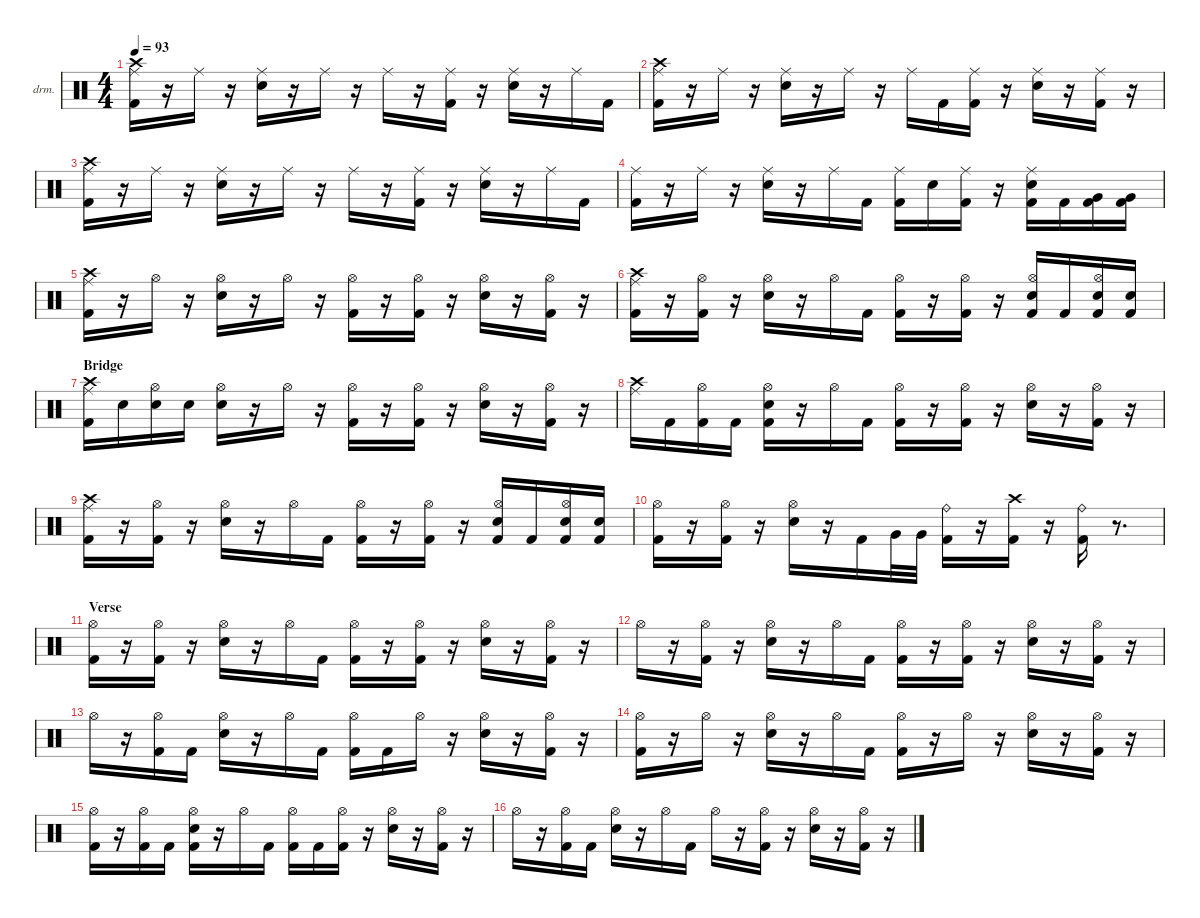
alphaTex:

\defaultSystemsLayout 2
\hideDynamics
\bracketExtendMode nobrackets
\firstSystemTrackNameOrientation horizontal
\otherSystemsTrackNameOrientation horizontal
\track ("Drumkit" "drm.") {instrument percussion}
\staff {score}
\articulation defaults
\ts (4 4)
\scale
1.0532
\tempo 93
\accidentals auto
\clef neutral
\ottava regular
\simile none
\ks c
("Kick (hit) 2" "Crash high (hit)"{acc #} "Ride (middle)"{acc #}).16{dy mf beam Down} r.16{beam Down} "Ride (middle)"{acc #}.16{beam Down} r.16{beam Down} ("Snare (hit) 2" "Ride (middle)"{acc #}).16{beam Down} r.16{beam Down} "Ride (middle)"{acc #}.16{beam Down} r.16{beam Down} "Ride (middle)"{acc #}.16{beam Down} r.16{beam Down} ("Kick (hit) 2" "Ride (middle)"{acc #}).16{beam Down} r.16{beam Down} ("Snare (hit) 2" "Ride (middle)"{acc #}).16{beam Down} r.16{beam Down} "Ride (middle)"{acc #}.16{beam Down} "Kick (hit) 2".16{beam Down} |
\scale
0.946802 ("Kick (hit) 2" "Crash high (hit)"{acc #} "Ride (middle)"{acc #}).16{beam Down} r.16{beam Down} "Ride (middle)"{acc #}.16{beam Down} r.16{beam Down} ("Snare (hit) 2" "Ride (middle)"{acc #}).16{beam Down} r.16{beam Down} "Ride (middle)"{acc #}.16{beam Down} r.16{beam Down} "Ride (middle)"{acc #}.16{beam Down} "Kick (hit) 2".16{beam Down} ("Kick (hit) 2" "Ride (middle)"{acc #}).16{beam Down} r.16{beam Down} ("Snare (hit) 2" "Ride (middle)"{acc #}).16{beam Down} r.16{beam Down} ("Kick (hit) 2" "Ride (middle)"{acc #}).16{beam Down} r.16{beam Down} |
\scale
1.03306 ("Crash high (hit)"{acc #} "Kick (hit) 2" "Ride (middle)"{acc #}).16{beam Down} r.16{beam Down} "Ride (middle)"{acc #}.16{beam Down} r.16{beam Down} ("Snare (hit) 2" "Ride (middle)"{acc #}).16{beam Down} r.16{beam Down} "Ride (middle)"{acc #}.16{beam Down} r.16{beam Down} "Ride (middle)"{acc #}.16{beam Down} r.16{beam Down} ("Kick (hit) 2" "Ride (middle)"{acc #}).16{beam Down} r.16{beam Down} ("Snare (hit) 2" "Ride (middle)"{acc #}).16{beam Down} r.16{beam Down} "Ride (middle)"{acc #}.16{beam Down} "Kick (hit) 2".16{beam Down} |
\scale
0.966937 ("Kick (hit) 2" "Ride (middle)"{acc #}).16{beam Down} r.16{beam Down} "Ride (middle)"{acc #}.16{beam Down} r.16{beam Down} ("Snare (hit) 2" "Ride (middle)"{acc #}).16{beam Down} r.16{beam Down} "Ride (middle)"{acc #}.16{beam Down} "Kick (hit) 2".16{beam Down} ("Kick (hit) 2" "Ride (middle)"{acc #}).16{beam Down} "Snare (hit) 2".16{beam Down} ("Kick (hit) 2" "Ride (middle)"{acc #}).16{beam Down} r.16{beam Down} ("Snare (hit) 2" "Kick (hit) 2" "Ride (middle)"{acc #}).16{beam Down} "Kick (hit) 2".16{beam Down} ("Kick (hit) 2" "Very Low Tom (hit)").16{beam Down} ("Kick (hit) 2" "Very Low Tom (hit)").16{beam Down} |
\scale
1.03043 ("Crash high (hit)"{acc #} "Kick (hit) 2" "Ride (middle)"{acc #}).16{beam Down} r.16{beam Down} "Hi-Hat (open)"{acc #}.16{beam Down} r.16{beam Down} ("Snare (hit) 2" "Hi-Hat (open)"{acc #}).16{beam Down} r.16{beam Down} "Hi-Hat (open)"{acc #}.16{beam Down} r.16{beam Down} ("Kick (hit) 2" "Hi-Hat (open)"{acc #}).16{beam Down} r.16{beam Down} ("Kick (hit) 2" "Hi-Hat (open)"{acc #}).16{beam Down} r.16{beam Down} ("Snare (hit) 2" "Hi-Hat (open)"{acc #}).16{beam Down} r.16{beam Down} ("Kick (hit) 2" "Hi-Hat (open)"{acc #}).16{beam Down} r.16{beam Down} |
\scale
0.969568 ("Crash high (hit)"{acc #} "Kick (hit) 2" "Ride (middle)"{acc #}).16{beam Down} r.16{beam Down} ("Kick (hit) 2" "Hi-Hat (open)"{acc #}).16{beam Down} r.16{beam Down} ("Snare (hit) 2" "Hi-Hat (open)"{acc #}).16{beam Down} r.16{beam Down} "Hi-Hat (open)"{acc #}.16{beam Down} "Kick (hit) 2".16{beam Down} ("Kick (hit) 2" "Hi-Hat (open)"{acc #}).16{beam Down} r.16{beam Down} ("Kick (hit) 2" "Hi-Hat (open)"{acc #}).16{beam Down} r.16{beam Down} ("Kick (hit) 2" "Snare (hit) 2" "Hi-Hat (open)"{acc #}).16{beam Up} "Kick (hit) 2".16{beam Up} ("Kick (hit) 2" "Snare (hit) 2" "Hi-Hat (open)"{acc #}).16{beam Up} ("Kick (hit) 2" "Snare (hit) 2").16{beam Up} |
\section ("" "Bridge")
\scale
1.03043 ("Kick (hit) 2" "Crash high (hit)"{acc #} "Ride (middle)"{acc #}).16{beam Down} "Snare (hit) 2".16{beam Down} ("Snare (hit) 2" "Hi-Hat (open)"{acc #}).16{beam Down} "Snare (hit) 2".16{beam Down} ("Snare (hit) 2" "Hi-Hat (open)"{acc #}).16{beam Down} r.16{beam Down} "Hi-Hat (open)"{acc #}.16{beam Down} r.16{beam Down} ("Kick (hit) 2" "Hi-Hat (open)"{acc #}).16{beam Down} r.16{beam Down} ("Kick (hit) 2" "Hi-Hat (open)"{acc #}).16{beam Down} r.16{beam Down} ("Snare (hit) 2" "Hi-Hat (open)"{acc #}).16{beam Down} r.16{beam Down} ("Kick (hit) 2" "Hi-Hat (open)"{acc #}).16{beam Down} r.16{beam Down} |
\scale
0.969568 ("Crash high (hit)"{acc #} "Ride (middle)"{acc #}).16{beam Down} "Kick (hit) 2".16{beam Down} ("Kick (hit) 2" "Hi-Hat (open)"{acc #}).16{beam Down} "Kick (hit) 2".16{beam Down} ("Kick (hit) 2" "Snare (hit) 2" "Hi-Hat (open)"{acc #}).16{beam Down} r.16{beam Down} "Hi-Hat (open)"{acc #}.16{beam Down} "Kick (hit) 2".16{beam Down} ("Kick (hit) 2" "Hi-Hat (open)"{acc #}).16{beam Down} r.16{beam Down} ("Kick (hit) 2" "Hi-Hat (open)"{acc #}).16{beam Down} r.16{beam Down} ("Snare (hit) 2" "Hi-Hat (open)"{acc #}).16{beam Down} r.16{beam Down} ("Kick (hit) 2" "Hi-Hat (open)"{acc #}).16{beam Down} r.16{beam Down} |
\scale
1.02601 ("Kick (hit) 2" "Crash high (hit)"{acc #} "Ride (middle)"{acc #}).16{beam Down} r.16{beam Down} ("Kick (hit) 2" "Hi-Hat (open)"{acc #}).16{beam Down} r.16{beam Down} ("Snare (hit) 2" "Hi-Hat (open)"{acc #}).16{beam Down} r.16{beam Down} "Hi-Hat (open)"{acc #}.16{beam Down} "Kick (hit) 2".16{beam Down} ("Kick (hit) 2" "Hi-Hat (open)"{acc #}).16{beam Down} r.16{beam Down} ("Kick (hit) 2" "Hi-Hat (open)"{acc #}).16{beam Down} r.16{beam Down} ("Snare (hit) 2" "Kick (hit) 2" "Hi-Hat (open)"{acc #}).16{beam Up} "Kick (hit) 2".16{beam Up} ("Snare (hit) 2" "Kick (hit) 2" "Hi-Hat (open)"{acc #}).16{beam Up} ("Kick (hit) 2" "Snare (hit) 2").16{beam Up} |
\scale
0.973989 ("Kick (hit) 2" "Hi-Hat (open)"{acc #}).16{beam Down} r.16{beam Down} ("Kick (hit) 2" "Hi-Hat (open)"{acc #}).16{beam Down} r.16{beam Down} ("Snare (hit) 2" "Hi-Hat (open)"{acc #}).16{beam Down} r.16{beam Down} "Kick (hit) 2".16{beam Up} "Very Low Tom (hit)".32{beam Up} "Very Low Tom (hit)".32{beam Up} ("Ride (bell)" "Kick (hit) 2").16{beam Down} r.16{beam Down} ("Crash high (hit)"{acc #} "Kick (hit) 2").16{beam Down} r.16{beam Down} ("Kick (hit) 2" "Ride (bell)").16{beam Down} r.8{d beam Down} |
\section ("" "Verse")
\scale
1.03043 ("Kick (hit) 2" "Hi-Hat (open)"{acc #}).16{beam Down} r.16{beam Down} ("Hi-Hat (open)"{acc #} "Kick (hit) 2").16{beam Down} r.16{beam Down} ("Snare (hit) 2" "Hi-Hat (open)"{acc #}).16{beam Down} r.16{beam Down} "Hi-Hat (open)"{acc #}.16{beam Down} "Kick (hit) 2".16{beam Down} ("Hi-Hat (open)"{acc #} "Kick (hit) 2").16{beam Down} r.16{beam Down} ("Hi-Hat (open)"{acc #} "Kick (hit) 2").16{beam Down} r.16{beam Down} ("Snare (hit) 2" "Hi-Hat (open)"{acc #}).16{beam Down} r.16{beam Down} ("Kick (hit) 2" "Hi-Hat (open)"{acc #}).16{beam Down} r.16{beam Down} |
\scale
0.969568 "Hi-Hat (open)"{acc #}.16{beam Down} r.16{beam Down} ("Kick (hit) 2" "Hi-Hat (open)"{acc #}).16{beam Down} r.16{beam Down} ("Snare (hit) 2" "Hi-Hat (open)"{acc #}).16{beam Down} r.16{beam Down} "Hi-Hat (open)"{acc #}.16{beam Down} "Kick (hit) 2".16{beam Down} ("Hi-Hat (open)"{acc #} "Kick (hit) 2").16{beam Down} r.16{beam Down} ("Kick (hit) 2" "Hi-Hat (open)"{acc #}).16{beam Down} r.16{beam Down} ("Snare (hit) 2" "Hi-Hat (open)"{acc #}).16{beam Down} r.16{beam Down} ("Kick (hit) 2" "Hi-Hat (open)"{acc #}).16{beam Down} r.16{beam Down} |
\scale
1.03043 "Hi-Hat (open)"{acc #}.16{beam Down} r.16{beam Down} ("Hi-Hat (open)"{acc #} "Kick (hit) 2").16{beam Down} "Kick (hit) 2".16{beam Down} ("Hi-Hat (open)"{acc #} "Snare (hit) 2").16{beam Down} r.16{beam Down} "Hi-Hat (open)"{acc #}.16{beam Down} "Kick (hit) 2".16{beam Down} ("Hi-Hat (open)"{acc #} "Kick (hit) 2").16{beam Down} "Kick (hit) 2".16{beam Down} "Hi-Hat (open)"{acc #}.16{beam Down} r.16{beam Down} ("Hi-Hat (open)"{acc #} "Snare (hit) 2").16{beam Down} r.16{beam Down} ("Kick (hit) 2" "Hi-Hat (open)"{acc #}).16{beam Down} r.16{beam Down} |
\scale
0.969568 ("Hi-Hat (open)"{acc #} "Kick (hit) 2").16{beam Down} r.16{beam Down} "Hi-Hat (open)"{acc #}.16{beam Down} r.16{beam Down} ("Hi-Hat (open)"{acc #} "Snare (hit) 2").16{beam Down} r.16{beam Down} "Hi-Hat (open)"{acc #}.16{beam Down} "Kick (hit) 2".16{beam Down} ("Kick (hit) 2" "Hi-Hat (open)"{acc #}).16{beam Down} r.16{beam Down} "Hi-Hat (open)"{acc #}.16{beam Down} r.16{beam Down} ("Snare (hit) 2" "Hi-Hat (open)"{acc #}).16{beam Down} r.16{beam Down} ("Hi-Hat (open)"{acc #} "Kick (hit) 2").16{beam Down} r.16{beam Down} |
\scale
1.03043 ("Kick (hit) 2" "Hi-Hat (open)"{acc #}).16{beam Down} r.16{beam Down} ("Hi-Hat (open)"{acc #} "Kick (hit) 2").16{beam Down} "Kick (hit) 2".16{beam Down} ("Kick (hit) 2" "Snare (hit) 2" "Hi-Hat (open)"{acc #}).16{beam Down} r.16{beam Down} "Hi-Hat (open)"{acc #}.16{beam Down} "Kick (hit) 2".16{beam Down} ("Hi-Hat (open)"{acc #} "Kick (hit) 2").16{beam Down} "Kick (hit) 2".16{beam Down} ("Kick (hit) 2" "Hi-Hat (open)"{acc #}).16{beam Down} r.16{beam Down} ("Snare (hit) 2" "Hi-Hat (open)"{acc #}).16{beam Down} r.16{beam Down} ("Kick (hit) 2" "Hi-Hat (open)"{acc #}).16{beam Down} r.16{beam Down} |
\scale
0.969568 "Hi-Hat (open)"{acc #}.16{beam Down} r.16{beam Down} ("Hi-Hat (open)"{acc #} "Kick (hit) 2").16{beam Down} "Kick (hit) 2".16{beam Down} ("Hi-Hat (open)"{acc #} "Snare (hit) 2").16{beam Down} r.16{beam Down} "Hi-Hat (open)"{acc #}.16{beam Down} "Kick (hit) 2".16{beam Down} "Hi-Hat (open)"{acc #}.16{beam Down} r.16{beam Down} ("Kick (hit) 2" "Hi-Hat (open)"{acc #}).16{beam Down} r.16{beam Down} ("Hi-Hat (open)"{acc #} "Snare (hit) 2").16{beam Down} r.16{beam Down} ("Kick (hit) 2" "Hi-Hat (open)"{acc #}).16{beam Down} r.16{beam Down}
